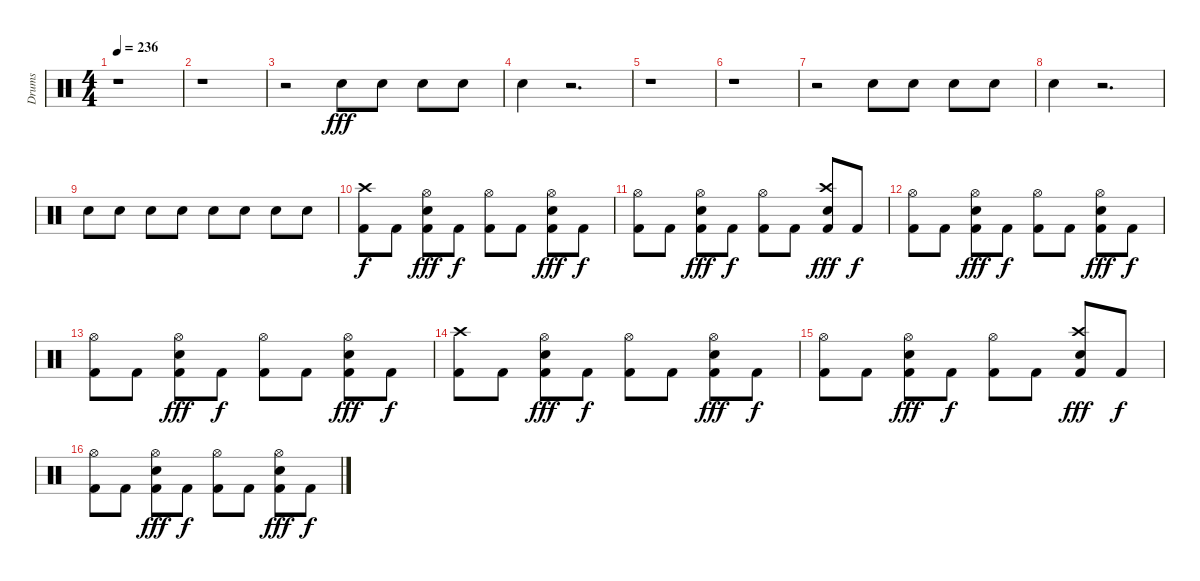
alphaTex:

\track ("Drums" "Drums") {instrument percussion}
\staff {score}
\articulation defaults
\ts (4 4)
\tempo 236
\clef neutral
\ks c
r.1{dy fff} |
r.1 |
r.2 "Electric Snare (hit)".8 "Electric Snare (hit)".8 "Electric Snare (hit)".8 "Electric Snare (hit)".8 |
"Electric Snare (hit)".4 r.2{d} |
r.1 |
r.1 |
r.2 "Electric Snare (hit)".8 "Electric Snare (hit)".8 "Electric Snare (hit)".8 "Electric Snare (hit)".8 |
"Electric Snare (hit)".4 r.2{d} |
"Electric Snare (hit)".8 "Electric Snare (hit)".8 "Electric Snare (hit)".8 "Electric Snare (hit)".8 "Electric Snare (hit)".8 "Electric Snare (hit)".8 "Electric Snare (hit)".8 "Electric Snare (hit)".8 |
("Crash high (hit)" "Kick (hit) 2").8{dy f} "Kick (hit) 2".8 ("Hi-Hat (open)" "Kick (hit) 2" "Electric Snare (hit)").8{dy fff} "Kick (hit) 2".8{dy f} ("Hi-Hat (open)" "Kick (hit) 2").8 "Kick (hit) 2".8 ("Hi-Hat (open)" "Kick (hit) 2" "Electric Snare (hit)").8{dy fff} "Kick (hit) 2".8{dy f} |
("Kick (hit) 2" "Hi-Hat (open)").8 "Kick (hit) 2".8 ("Kick (hit) 2" "Hi-Hat (open)" "Electric Snare (hit)").8{dy fff} "Kick (hit) 2".8{dy f} ("Kick (hit) 2" "Hi-Hat (open)").8 "Kick (hit) 2".8 ("Kick (hit) 2" "Crash high (hit)" "Electric Snare (hit)").8{dy fff} "Kick (hit) 2".8{dy f} |
("Hi-Hat (open)" "Kick (hit) 2").8 "Kick (hit) 2".8 ("Hi-Hat (open)" "Kick (hit) 2" "Electric Snare (hit)").8{dy fff} "Kick (hit) 2".8{dy f} ("Hi-Hat (open)" "Kick (hit) 2").8 "Kick (hit) 2".8 ("Hi-Hat (open)" "Kick (hit) 2" "Electric Snare (hit)").8{dy fff} "Kick (hit) 2".8{dy f} |
("Hi-Hat (open)" "Kick (hit) 2").8 "Kick (hit) 2".8 ("Hi-Hat (open)" "Kick (hit) 2" "Electric Snare (hit)").8{dy fff} "Kick (hit) 2".8{dy f} ("Hi-Hat (open)" "Kick (hit) 2").8 "Kick (hit) 2".8 ("Hi-Hat (open)" "Kick (hit) 2" "Electric Snare (hit)").8{dy fff} "Kick (hit) 2".8{dy f} |
("Crash high (hit)" "Kick (hit) 2").8 "Kick (hit) 2".8 ("Hi-Hat (open)" "Kick (hit) 2" "Electric Snare (hit)").8{dy fff} "Kick (hit) 2".8{dy f} ("Hi-Hat (open)" "Kick (hit) 2").8 "Kick (hit) 2".8 ("Hi-Hat (open)" "Kick (hit) 2" "Electric Snare (hit)").8{dy fff} "Kick (hit) 2".8{dy f} |
("Kick (hit) 2" "Hi-Hat (open)").8 "Kick (hit) 2".8 ("Kick (hit) 2" "Hi-Hat (open)" "Electric Snare (hit)").8{dy fff} "Kick (hit) 2".8{dy f} ("Kick (hit) 2" "Hi-Hat (open)").8 "Kick (hit) 2".8 ("Kick (hit) 2" "Crash high (hit)" "Electric Snare (hit)").8{dy fff} "Kick (hit) 2".8{dy f} |
("Hi-Hat (open)" "Kick (hit) 2").8 "Kick (hit) 2".8 ("Hi-Hat (open)" "Kick (hit) 2" "Electric Snare (hit)").8{dy fff} "Kick (hit) 2".8{dy f} ("Hi-Hat (open)" "Kick (hit) 2").8 "Kick (hit) 2".8 ("Hi-Hat (open)" "Kick (hit) 2" "Electric Snare (hit)").8{dy fff} "Kick (hit) 2".8{dy f}
